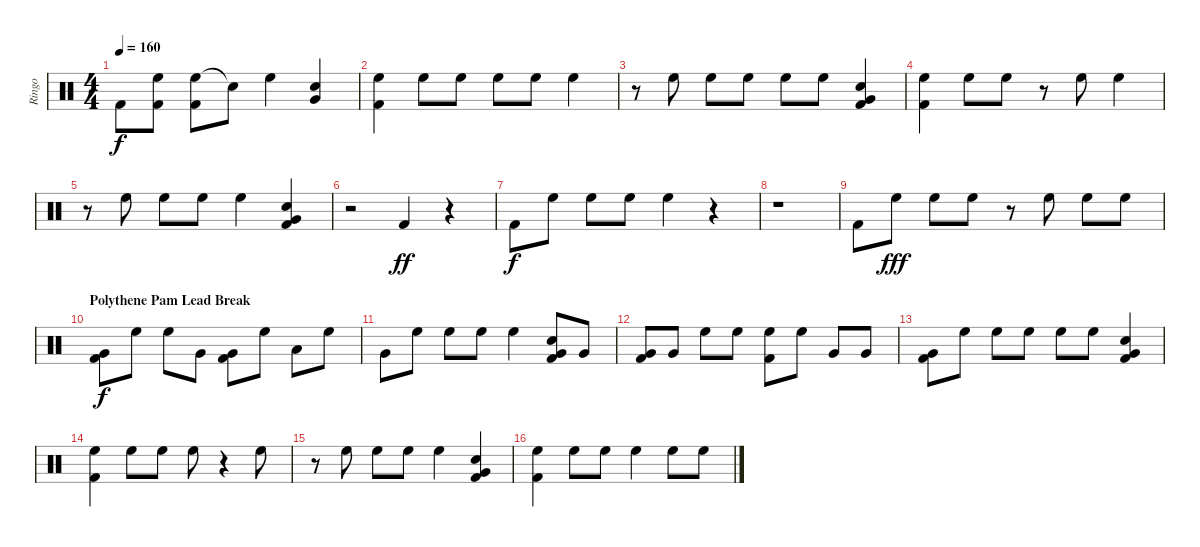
\track ("Ringo" "Ringo") {instrument percussion}
\staff {score}
\articulation defaults
\ts (4 4)
\tempo 160
\clef neutral
\ks c "Kick (hit) 2".8{dy f}
("High Floor Tom (hit)" "Kick (hit) 2").8 ("High Floor Tom (hit)" "Kick (hit) 2").8 "Snare (hit)"{t}.8 "High Floor Tom (hit)".4 ("Very Low Tom (hit)" "Snare (hit) 2").4 |
("High Floor Tom (hit)" "Kick (hit) 2").4 "High Floor Tom (hit)".8 "High Floor Tom (hit)".8 "High Floor Tom (hit)".8 "High Floor Tom (hit)".8 "High Floor Tom (hit)".4 |
r.8 "High Floor Tom (hit)".8 "High Floor Tom (hit)".8 "High Floor Tom (hit)".8 "High Floor Tom (hit)".8 "High Floor Tom (hit)".8 ("Very Low Tom (hit)" "Snare (hit) 2" "Kick (hit) 2").4 |
("High Floor Tom (hit)" "Kick (hit) 2").4 "High Floor Tom (hit)".8 "High Floor Tom (hit)".8 r.8 "High Floor Tom (hit)".8 "High Floor Tom (hit)".4 |
r.8 "High Floor Tom (hit)".8 "High Floor Tom (hit)".8 "High Floor Tom (hit)".8 "High Floor Tom (hit)".4 ("Very Low Tom (hit)" "Snare (hit) 2" "Kick (hit) 2").4 |
r.2 "Kick (hit) 2".4{dy ff} r.4 |
"Kick (hit) 2".8{dy f} "High Floor Tom (hit)".8 "High Floor Tom (hit)".8 "High Floor Tom (hit)".8 "High Floor Tom (hit)".4 r.4 |
r.1 |
"Kick (hit) 2".8 "High Floor Tom (hit)".8{dy fff} "High Floor Tom (hit)".8 "High Floor Tom (hit)".8 r.8 "High Floor Tom (hit)".8 "High Floor Tom (hit)".8 "High Floor Tom (hit)".8 |
\section ("" "Polythene Pam Lead Break")
("Very Low Tom (hit)" "Kick (hit) 2").8{dy f} "High Floor Tom (hit)".8 "High Floor Tom (hit)".8 "Very Low Tom (hit)".8 ("Very Low Tom (hit)" "Kick (hit) 2").8 "High Floor Tom (hit)".8 "Low Floor Tom (hit)".8 "High Floor Tom (hit)".8 |
"Very Low Tom (hit)".8 "High Floor Tom (hit)".8 "High Floor Tom (hit)".8 "High Floor Tom (hit)".8 "High Floor Tom (hit)".4 ("Very Low Tom (hit)" "Snare (hit) 2" "Kick (hit) 2").8 "Very Low Tom (hit)".8 |
("Very Low Tom (hit)" "Kick (hit) 2").8 "Very Low Tom (hit)".8 "High Floor Tom (hit)".8 "High Floor Tom (hit)".8 ("High Floor Tom (hit)" "Kick (hit) 2").8 "High Floor Tom (hit)".8 "Very Low Tom (hit)".8 "Very Low Tom (hit)".8 |
("Very Low Tom (hit)" "Kick (hit) 2").8 "High Floor Tom (hit)".8 "High Floor Tom (hit)".8 "High Floor Tom (hit)".8 "High Floor Tom (hit)".8 "High Floor Tom (hit)".8 ("Very Low Tom (hit)" "Snare (hit) 2" "Kick (hit) 2").4 |
("High Floor Tom (hit)" "Kick (hit) 2").4 "High Floor Tom (hit)".8 "High Floor Tom (hit)".8 "High Floor Tom (hit)".8 r.4 "High Floor Tom (hit)".8 |
r.8 "High Floor Tom (hit)".8 "High Floor Tom (hit)".8 "High Floor Tom (hit)".8 "High Floor Tom (hit)".4 ("Very Low Tom (hit)" "Snare (hit) 2" "Kick (hit) 2").4 |
("High Floor Tom (hit)" "Kick (hit) 2").4 "High Floor Tom (hit)".8 "High Floor Tom (hit)".8 "High Floor Tom (hit)".4 "High Floor Tom (hit)".8 "High Floor Tom (hit)".8
